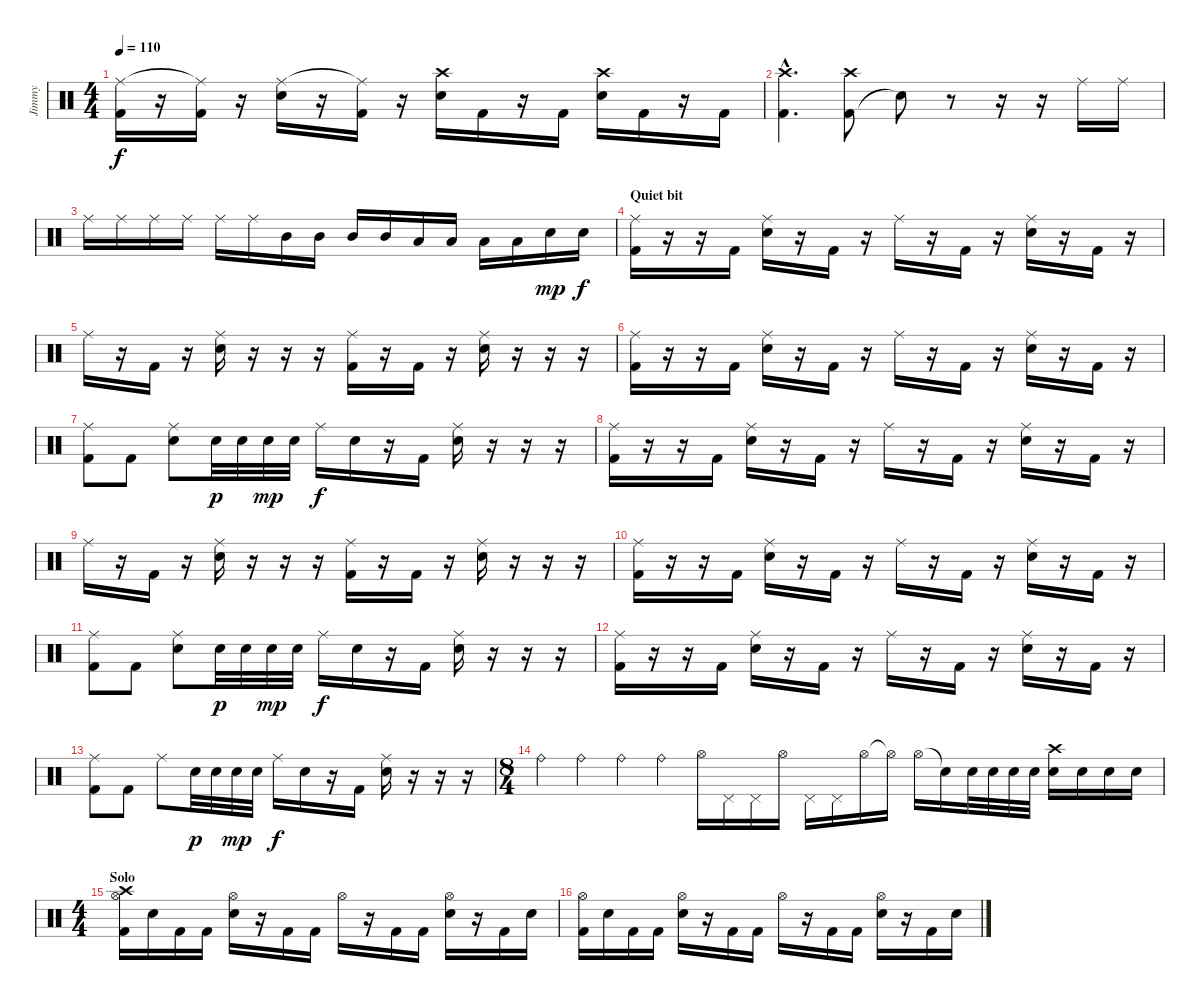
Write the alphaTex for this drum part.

\track ("Jimmy" "Jimmy") {instrument percussion}
\staff {score}
\articulation defaults
\ts (4 4)
\tempo 110
\clef neutral
\ks c
("Kick (hit) 2" "Ride (middle)").16{dy f} r.16 ("Kick (hit) 2" "Ride (middle)"{t}).16 r.16 ("Electric Snare (hit)" "Ride (middle)").16 r.16 ("Kick (hit) 2" "Ride (middle)"{t}).16 r.16 ("Electric Snare (hit)" "Crash high (hit)").16 "Kick (hit) 2".16 r.16 "Kick (hit) 2".16 ("Electric Snare (hit)" "Crash high (hit)").16 "Kick (hit) 2".16 r.16 "Kick (hit) 2".16 |
("Kick (hit) 2"{hac} "Crash high (hit)"{hac}).4{d} ("Kick (hit) 2" "Crash high (hit)").8 "Electric Snare (hit)"{t}.8 r.8 r.16 r.16 "Ride (middle)".16 "Ride (middle)".16 |
"Ride (middle)".16{volume 9} "Ride (middle)".16 "Ride (middle)".16 "Ride (middle)".16 "Ride (middle)".16 "Ride (middle)".16 "Mid Tom (hit)".16 "Mid Tom (hit)".16 "Mid Tom (hit)".16 "Mid Tom (hit)".16 "Low Tom (hit)".16 "Low Tom (hit)".16 "Low Tom (hit)".16 "Low Tom (hit)".16 "Electric Snare (hit)".16{dy mp} "Electric Snare (hit)".16{dy f} |
\section ("" "Quiet bit")
("Kick (hit) 2" "Ride (middle)").16{volume 8} r.16 r.16 "Kick (hit) 2".16 ("Electric Snare (hit)" "Ride (middle)").16 r.16 "Kick (hit) 2".16 r.16 "Ride (middle)".16 r.16 "Kick (hit) 2".16 r.16 ("Electric Snare (hit)" "Ride (middle)").16 r.16 "Kick (hit) 2".16 r.16 |
"Ride (middle)".16 r.16 "Kick (hit) 2".16 r.16 ("Electric Snare (hit)" "Ride (middle)").16 r.16 r.16 r.16 ("Kick (hit) 2" "Ride (middle)").16 r.16 "Kick (hit) 2".16 r.16 ("Electric Snare (hit)" "Ride (middle)").16 r.16 r.16 r.16 |
("Kick (hit) 2" "Ride (middle)").16{volume 8} r.16 r.16 "Kick (hit) 2".16 ("Electric Snare (hit)" "Ride (middle)").16 r.16 "Kick (hit) 2".16 r.16 "Ride (middle)".16 r.16 "Kick (hit) 2".16 r.16 ("Electric Snare (hit)" "Ride (middle)").16 r.16 "Kick (hit) 2".16 r.16 |
("Kick (hit) 2" "Ride (middle)").8 "Kick (hit) 2".8 ("Electric Snare (hit)" "Ride (middle)").8 "Electric Snare (hit)".32{dy p} "Electric Snare (hit)".32 "Electric Snare (hit)".32{dy mp} "Electric Snare (hit)".32 "Ride (middle)".16{dy f} "Electric Snare (hit)".16 r.16 "Kick (hit) 2".16 ("Electric Snare (hit)" "Ride (middle)").16 r.16 r.16 r.16 |
("Kick (hit) 2" "Ride (middle)").16{volume 8} r.16 r.16 "Kick (hit) 2".16 ("Electric Snare (hit)" "Ride (middle)").16 r.16 "Kick (hit) 2".16 r.16 "Ride (middle)".16 r.16 "Kick (hit) 2".16 r.16 ("Electric Snare (hit)" "Ride (middle)").16 r.16 "Kick (hit) 2".16 r.16 |
"Ride (middle)".16 r.16 "Kick (hit) 2".16 r.16 ("Electric Snare (hit)" "Ride (middle)").16 r.16 r.16 r.16 ("Kick (hit) 2" "Ride (middle)").16 r.16 "Kick (hit) 2".16 r.16 ("Electric Snare (hit)" "Ride (middle)").16 r.16 r.16 r.16 |
("Kick (hit) 2" "Ride (middle)").16{volume 8} r.16 r.16 "Kick (hit) 2".16 ("Electric Snare (hit)" "Ride (middle)").16 r.16 "Kick (hit) 2".16 r.16 "Ride (middle)".16 r.16 "Kick (hit) 2".16 r.16 ("Electric Snare (hit)" "Ride (middle)").16 r.16 "Kick (hit) 2".16 r.16 |
("Kick (hit) 2" "Ride (middle)").8 "Kick (hit) 2".8 ("Electric Snare (hit)" "Ride (middle)").8 "Electric Snare (hit)".32{dy p} "Electric Snare (hit)".32 "Electric Snare (hit)".32{dy mp} "Electric Snare (hit)".32 "Ride (middle)".16{dy f} "Electric Snare (hit)".16 r.16 "Kick (hit) 2".16 ("Electric Snare (hit)" "Ride (middle)").16 r.16 r.16 r.16 |
("Kick (hit) 2" "Ride (middle)").16{volume 8} r.16 r.16 "Kick (hit) 2".16 ("Electric Snare (hit)" "Ride (middle)").16 r.16 "Kick (hit) 2".16 r.16 "Ride (middle)".16 r.16 "Kick (hit) 2".16 r.16 ("Electric Snare (hit)" "Ride (middle)").16 r.16 "Kick (hit) 2".16 r.16 |
("Kick (hit) 2" "Ride (middle)").8 "Kick (hit) 2".8 "Ride (middle)".8 "Electric Snare (hit)".32{dy p} "Electric Snare (hit)".32 "Electric Snare (hit)".32{dy mp} "Electric Snare (hit)".32 "Ride (middle)".16{dy f} "Electric Snare (hit)".16 r.16 "Kick (hit) 2".16 ("Electric Snare (hit)" "Ride (middle)").16 r.16 r.16 r.16 |
\ts (8 4)
"Ride (bell)".4 "Ride (bell)".4 "Ride (bell)".4 "Ride (bell)".4 "Hi-Hat (open)".16 "Pedal Hi-Hat (hit)".16 "Pedal Hi-Hat (hit)".16 "Hi-Hat (open)".16 "Pedal Hi-Hat (hit)".16 "Pedal Hi-Hat (hit)".16 "Hi-Hat (open)".16 "Hi-Hat (open)"{t}.16 "Hi-Hat (open)".16 "Snare (hit)"{t}.16 "Electric Snare (hit)".32 "Electric Snare (hit)".32 "Electric Snare (hit)".32 "Electric Snare (hit)".32 ("Electric Snare (hit)" "Crash high (hit)").16 "Electric Snare (hit)".16 "Electric Snare (hit)".16 "Electric Snare (hit)".16 |
\ts (4 4)
\section ("" "Solo")
("Crash high (hit)" "Hi-Hat (open)" "Kick (hit) 2").16{volume 16} "Electric Snare (hit)".16 "Kick (hit) 2".16 "Kick (hit) 2".16 ("Hi-Hat (open)" "Electric Snare (hit)").16 r.16 "Kick (hit) 2".16 "Kick (hit) 2".16 "Hi-Hat (open)".16 r.16 "Kick (hit) 2".16 "Kick (hit) 2".16 ("Hi-Hat (open)" "Electric Snare (hit)").16 r.16 "Kick (hit) 2".16 "Electric Snare (hit)".16 |
("Hi-Hat (open)" "Kick (hit) 2").16 "Electric Snare (hit)".16 "Kick (hit) 2".16 "Kick (hit) 2".16 ("Hi-Hat (open)" "Electric Snare (hit)").16 r.16 "Kick (hit) 2".16 "Kick (hit) 2".16 "Hi-Hat (open)".16 r.16 "Kick (hit) 2".16 "Kick (hit) 2".16 ("Hi-Hat (open)" "Electric Snare (hit)").16 r.16 "Kick (hit) 2".16 "Electric Snare (hit)".16
